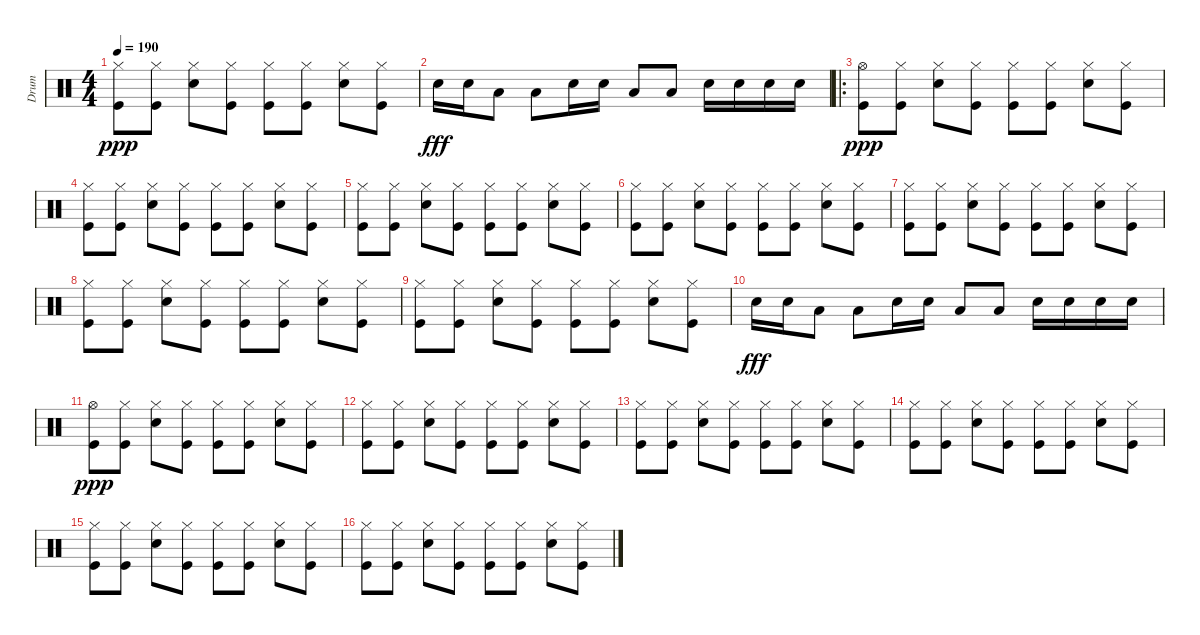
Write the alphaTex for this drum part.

\track ("Drum" "Drum") {instrument percussion}
\staff {score}
\articulation defaults
\ts (4 4)
\tempo 190
\clef neutral
\ks c
("Hi-Hat (closed)" "Kick (hit)").8{dy ppp} ("Hi-Hat (closed)" "Kick (hit)").8 ("Hi-Hat (closed)" "Snare (hit) 2").8 ("Hi-Hat (closed)" "Kick (hit)").8 ("Hi-Hat (closed)" "Kick (hit)").8 ("Hi-Hat (closed)" "Kick (hit)").8 ("Hi-Hat (closed)" "Snare (hit) 2").8 ("Hi-Hat (closed)" "Kick (hit)").8 |
"Snare (hit) 2".16{dy fff} "Snare (hit) 2".16 "Low Tom (hit)".8 "Low Tom (hit)".8 "Snare (hit) 2".16 "Snare (hit) 2".16 "Low Tom (hit)".8 "Low Tom (hit)".8 "Snare (hit) 2".16 "Snare (hit) 2".16 "Snare (hit) 2".16 "Snare (hit) 2".16 |
\ro
("Hi-Hat (open)" "Kick (hit)").8{dy ppp} ("Hi-Hat (closed)" "Kick (hit)").8 ("Hi-Hat (closed)" "Snare (hit) 2").8 ("Hi-Hat (closed)" "Kick (hit)").8 ("Hi-Hat (closed)" "Kick (hit)").8 ("Hi-Hat (closed)" "Kick (hit)").8 ("Hi-Hat (closed)" "Snare (hit) 2").8 ("Hi-Hat (closed)" "Kick (hit)").8 |
("Hi-Hat (closed)" "Kick (hit)").8 ("Hi-Hat (closed)" "Kick (hit)").8 ("Hi-Hat (closed)" "Snare (hit) 2").8 ("Hi-Hat (closed)" "Kick (hit)").8 ("Hi-Hat (closed)" "Kick (hit)").8 ("Hi-Hat (closed)" "Kick (hit)").8 ("Hi-Hat (closed)" "Snare (hit) 2").8 ("Hi-Hat (closed)" "Kick (hit)").8 |
("Hi-Hat (closed)" "Kick (hit)").8 ("Hi-Hat (closed)" "Kick (hit)").8 ("Hi-Hat (closed)" "Snare (hit) 2").8 ("Hi-Hat (closed)" "Kick (hit)").8 ("Hi-Hat (closed)" "Kick (hit)").8 ("Hi-Hat (closed)" "Kick (hit)").8 ("Hi-Hat (closed)" "Snare (hit) 2").8 ("Hi-Hat (closed)" "Kick (hit)").8 |
("Hi-Hat (closed)" "Kick (hit)").8 ("Hi-Hat (closed)" "Kick (hit)").8 ("Hi-Hat (closed)" "Snare (hit) 2").8 ("Hi-Hat (closed)" "Kick (hit)").8 ("Hi-Hat (closed)" "Kick (hit)").8 ("Hi-Hat (closed)" "Kick (hit)").8 ("Hi-Hat (closed)" "Snare (hit) 2").8 ("Hi-Hat (closed)" "Kick (hit)").8 |
("Hi-Hat (closed)" "Kick (hit)").8 ("Hi-Hat (closed)" "Kick (hit)").8 ("Hi-Hat (closed)" "Snare (hit) 2").8 ("Hi-Hat (closed)" "Kick (hit)").8 ("Hi-Hat (closed)" "Kick (hit)").8 ("Hi-Hat (closed)" "Kick (hit)").8 ("Hi-Hat (closed)" "Snare (hit) 2").8 ("Hi-Hat (closed)" "Kick (hit)").8 |
("Hi-Hat (closed)" "Kick (hit)").8 ("Hi-Hat (closed)" "Kick (hit)").8 ("Hi-Hat (closed)" "Snare (hit) 2").8 ("Hi-Hat (closed)" "Kick (hit)").8 ("Hi-Hat (closed)" "Kick (hit)").8 ("Hi-Hat (closed)" "Kick (hit)").8 ("Hi-Hat (closed)" "Snare (hit) 2").8 ("Hi-Hat (closed)" "Kick (hit)").8 |
("Hi-Hat (closed)" "Kick (hit)").8 ("Hi-Hat (closed)" "Kick (hit)").8 ("Hi-Hat (closed)" "Snare (hit) 2").8 ("Hi-Hat (closed)" "Kick (hit)").8 ("Hi-Hat (closed)" "Kick (hit)").8 ("Hi-Hat (closed)" "Kick (hit)").8 ("Hi-Hat (closed)" "Snare (hit) 2").8 ("Hi-Hat (closed)" "Kick (hit)").8 |
"Snare (hit) 2".16{dy fff} "Snare (hit) 2".16 "Low Tom (hit)".8 "Low Tom (hit)".8 "Snare (hit) 2".16 "Snare (hit) 2".16 "Low Tom (hit)".8 "Low Tom (hit)".8 "Snare (hit) 2".16 "Snare (hit) 2".16 "Snare (hit) 2".16 "Snare (hit) 2".16 |
("Hi-Hat (open)" "Kick (hit)").8{dy ppp} ("Hi-Hat (closed)" "Kick (hit)").8 ("Hi-Hat (closed)" "Snare (hit) 2").8 ("Hi-Hat (closed)" "Kick (hit)").8 ("Hi-Hat (closed)" "Kick (hit)").8 ("Hi-Hat (closed)" "Kick (hit)").8 ("Hi-Hat (closed)" "Snare (hit) 2").8 ("Hi-Hat (closed)" "Kick (hit)").8 |
("Hi-Hat (closed)" "Kick (hit)").8 ("Hi-Hat (closed)" "Kick (hit)").8 ("Hi-Hat (closed)" "Snare (hit) 2").8 ("Hi-Hat (closed)" "Kick (hit)").8 ("Hi-Hat (closed)" "Kick (hit)").8 ("Hi-Hat (closed)" "Kick (hit)").8 ("Hi-Hat (closed)" "Snare (hit) 2").8 ("Hi-Hat (closed)" "Kick (hit)").8 |
("Hi-Hat (closed)" "Kick (hit)").8 ("Hi-Hat (closed)" "Kick (hit)").8 ("Hi-Hat (closed)" "Snare (hit) 2").8 ("Hi-Hat (closed)" "Kick (hit)").8 ("Hi-Hat (closed)" "Kick (hit)").8 ("Hi-Hat (closed)" "Kick (hit)").8 ("Hi-Hat (closed)" "Snare (hit) 2").8 ("Hi-Hat (closed)" "Kick (hit)").8 |
("Hi-Hat (closed)" "Kick (hit)").8 ("Hi-Hat (closed)" "Kick (hit)").8 ("Hi-Hat (closed)" "Snare (hit) 2").8 ("Hi-Hat (closed)" "Kick (hit)").8 ("Hi-Hat (closed)" "Kick (hit)").8 ("Hi-Hat (closed)" "Kick (hit)").8 ("Hi-Hat (closed)" "Snare (hit) 2").8 ("Hi-Hat (closed)" "Kick (hit)").8 |
("Hi-Hat (closed)" "Kick (hit)").8 ("Hi-Hat (closed)" "Kick (hit)").8 ("Hi-Hat (closed)" "Snare (hit) 2").8 ("Hi-Hat (closed)" "Kick (hit)").8 ("Hi-Hat (closed)" "Kick (hit)").8 ("Hi-Hat (closed)" "Kick (hit)").8 ("Hi-Hat (closed)" "Snare (hit) 2").8 ("Hi-Hat (closed)" "Kick (hit)").8 |
("Hi-Hat (closed)" "Kick (hit)").8 ("Hi-Hat (closed)" "Kick (hit)").8 ("Hi-Hat (closed)" "Snare (hit) 2").8 ("Hi-Hat (closed)" "Kick (hit)").8 ("Hi-Hat (closed)" "Kick (hit)").8 ("Hi-Hat (closed)" "Kick (hit)").8 ("Hi-Hat (closed)" "Snare (hit) 2").8 ("Hi-Hat (closed)" "Kick (hit)").8
